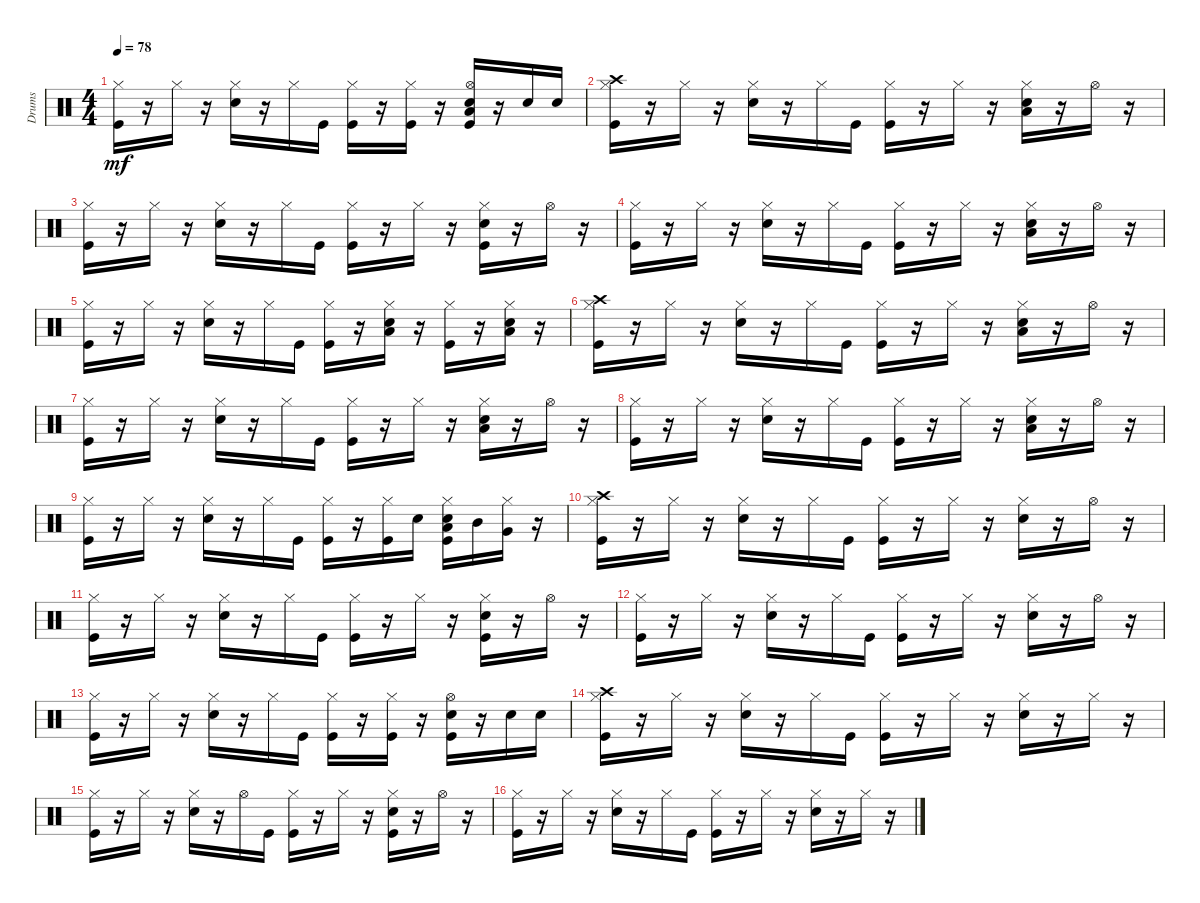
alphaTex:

\track ("Drums               " "Drums     ") {instrument percussion}
\staff {score}
\articulation defaults
\ts (4 4)
\tempo 78
\clef neutral
\ks c
("Kick (hit)" "Hi-Hat (closed)").16{dy mf} r.16 "Hi-Hat (closed)".16 r.16 ("Snare (hit) 2" "Hi-Hat (closed)").16 r.16 "Hi-Hat (closed)".16 "Kick (hit)".16 ("Kick (hit)" "Hi-Hat (closed)").16 r.16 ("Kick (hit)" "Hi-Hat (closed)").16 r.16 ("Kick (hit)" "Snare (hit) 2" "Hi-Hat (open)" "Low Floor Tom (hit)").16 r.16 "Snare (hit) 2".16 "Snare (hit) 2".16 |
("Kick (hit)" "Hi-Hat (closed)" "Crash high (hit)").16 r.16 "Hi-Hat (closed)".16 r.16 ("Snare (hit) 2" "Hi-Hat (closed)").16 r.16 "Hi-Hat (closed)".16 "Kick (hit)".16 ("Kick (hit)" "Hi-Hat (closed)").16 r.16 "Hi-Hat (closed)".16 r.16 ("Snare (hit) 2" "Hi-Hat (closed)" "Low Floor Tom (hit)").16 r.16 "Hi-Hat (open)".16 r.16 |
("Kick (hit)" "Hi-Hat (closed)").16 r.16 "Hi-Hat (closed)".16 r.16 ("Snare (hit) 2" "Hi-Hat (closed)").16 r.16 "Hi-Hat (closed)".16 "Kick (hit)".16 ("Kick (hit)" "Hi-Hat (closed)").16 r.16 "Hi-Hat (closed)".16 r.16 ("Kick (hit)" "Snare (hit) 2" "Hi-Hat (closed)").16 r.16 "Hi-Hat (open)".16 r.16 |
("Kick (hit)" "Hi-Hat (closed)").16 r.16 "Hi-Hat (closed)".16 r.16 ("Snare (hit) 2" "Hi-Hat (closed)").16 r.16 "Hi-Hat (closed)".16 "Kick (hit)".16 ("Kick (hit)" "Hi-Hat (closed)").16 r.16 "Hi-Hat (closed)".16 r.16 ("Snare (hit) 2" "Hi-Hat (closed)" "Low Floor Tom (hit)").16 r.16 "Hi-Hat (open)".16 r.16 |
("Kick (hit)" "Hi-Hat (closed)").16 r.16 "Hi-Hat (closed)".16 r.16 ("Snare (hit) 2" "Hi-Hat (closed)").16 r.16 "Hi-Hat (closed)".16 "Kick (hit)".16 ("Kick (hit)" "Hi-Hat (closed)").16 r.16 ("Snare (hit) 2" "Hi-Hat (closed)" "Low Floor Tom (hit)").16 r.16 ("Kick (hit)" "Hi-Hat (closed)").16 r.16 ("Snare (hit) 2" "Hi-Hat (closed)" "Low Floor Tom (hit)").16 r.16 |
("Kick (hit)" "Hi-Hat (closed)" "Crash high (hit)").16 r.16 "Hi-Hat (closed)".16 r.16 ("Snare (hit) 2" "Hi-Hat (closed)").16 r.16 "Hi-Hat (closed)".16 "Kick (hit)".16 ("Kick (hit)" "Hi-Hat (closed)").16 r.16 "Hi-Hat (closed)".16 r.16 ("Snare (hit) 2" "Hi-Hat (closed)" "Low Floor Tom (hit)").16 r.16 "Hi-Hat (open)".16 r.16 |
("Kick (hit)" "Hi-Hat (closed)").16 r.16 "Hi-Hat (closed)".16 r.16 ("Snare (hit) 2" "Hi-Hat (closed)").16 r.16 "Hi-Hat (closed)".16 "Kick (hit)".16 ("Kick (hit)" "Hi-Hat (closed)").16 r.16 "Hi-Hat (closed)".16 r.16 ("Snare (hit) 2" "Hi-Hat (closed)" "Low Floor Tom (hit)").16 r.16 "Hi-Hat (open)".16 r.16 |
("Kick (hit)" "Hi-Hat (closed)").16 r.16 "Hi-Hat (closed)".16 r.16 ("Snare (hit) 2" "Hi-Hat (closed)").16 r.16 "Hi-Hat (closed)".16 "Kick (hit)".16 ("Kick (hit)" "Hi-Hat (closed)").16 r.16 "Hi-Hat (closed)".16 r.16 ("Snare (hit) 2" "Hi-Hat (closed)" "Low Floor Tom (hit)").16 r.16 "Hi-Hat (open)".16 r.16 |
("Kick (hit)" "Hi-Hat (closed)").16 r.16 "Hi-Hat (closed)".16 r.16 ("Snare (hit) 2" "Hi-Hat (closed)").16 r.16 "Hi-Hat (closed)".16 "Kick (hit)".16 ("Kick (hit)" "Hi-Hat (closed)").16 r.16 ("Kick (hit)" "Hi-Hat (closed)").16 "Snare (hit) 2".16 ("Kick (hit)" "Snare (hit) 2" "Hi-Hat (closed)" "Low Floor Tom (hit)").16 "Mid Tom (hit)".16 ("Hi-Hat (closed)" "Very Low Tom (hit)").16 r.16 |
("Kick (hit)" "Hi-Hat (closed)" "Crash high (hit)").16 r.16 "Hi-Hat (closed)".16 r.16 ("Snare (hit) 2" "Hi-Hat (closed)").16 r.16 "Hi-Hat (closed)".16 "Kick (hit)".16 ("Kick (hit)" "Hi-Hat (closed)").16 r.16 "Hi-Hat (closed)".16 r.16 ("Snare (hit) 2" "Hi-Hat (closed)").16 r.16 "Hi-Hat (open)".16 r.16 |
("Kick (hit)" "Hi-Hat (closed)").16 r.16 "Hi-Hat (closed)".16 r.16 ("Snare (hit) 2" "Hi-Hat (closed)").16 r.16 "Hi-Hat (closed)".16 "Kick (hit)".16 ("Kick (hit)" "Hi-Hat (closed)").16 r.16 "Hi-Hat (closed)".16 r.16 ("Kick (hit)" "Snare (hit) 2" "Hi-Hat (closed)").16 r.16 "Hi-Hat (open)".16 r.16 |
("Kick (hit)" "Hi-Hat (closed)").16 r.16 "Hi-Hat (closed)".16 r.16 ("Snare (hit) 2" "Hi-Hat (closed)").16 r.16 "Hi-Hat (closed)".16 "Kick (hit)".16 ("Kick (hit)" "Hi-Hat (closed)").16 r.16 "Hi-Hat (closed)".16 r.16 ("Snare (hit) 2" "Hi-Hat (closed)").16 r.16 "Hi-Hat (open)".16 r.16 |
("Kick (hit)" "Hi-Hat (closed)").16 r.16 "Hi-Hat (closed)".16 r.16 ("Snare (hit) 2" "Hi-Hat (closed)").16 r.16 "Hi-Hat (closed)".16 "Kick (hit)".16 ("Kick (hit)" "Hi-Hat (closed)").16 r.16 ("Kick (hit)" "Hi-Hat (closed)").16 r.16 ("Kick (hit)" "Snare (hit) 2" "Hi-Hat (open)").16 r.16 "Snare (hit) 2".16 "Snare (hit) 2".16 |
("Kick (hit)" "Hi-Hat (closed)" "Crash high (hit)").16 r.16 "Hi-Hat (closed)".16 r.16 ("Snare (hit) 2" "Hi-Hat (closed)").16 r.16 "Hi-Hat (closed)".16 "Kick (hit)".16 ("Kick (hit)" "Hi-Hat (closed)").16 r.16 "Hi-Hat (closed)".16 r.16 ("Snare (hit) 2" "Hi-Hat (closed)").16 r.16 "Hi-Hat (closed)".16 r.16 |
("Kick (hit)" "Hi-Hat (closed)").16 r.16 "Hi-Hat (closed)".16 r.16 ("Snare (hit) 2" "Hi-Hat (closed)").16 r.16 "Hi-Hat (open)".16 "Kick (hit)".16 ("Kick (hit)" "Hi-Hat (closed)").16 r.16 "Hi-Hat (closed)".16 r.16 ("Kick (hit)" "Snare (hit) 2" "Hi-Hat (closed)").16 r.16 "Hi-Hat (open)".16 r.16 |
("Kick (hit)" "Hi-Hat (closed)").16 r.16 "Hi-Hat (closed)".16 r.16 ("Snare (hit) 2" "Hi-Hat (closed)").16 r.16 "Hi-Hat (closed)".16 "Kick (hit)".16 ("Kick (hit)" "Hi-Hat (closed)").16 r.16 "Hi-Hat (closed)".16 r.16 ("Snare (hit) 2" "Hi-Hat (closed)").16 r.16 "Hi-Hat (closed)".16 r.16
